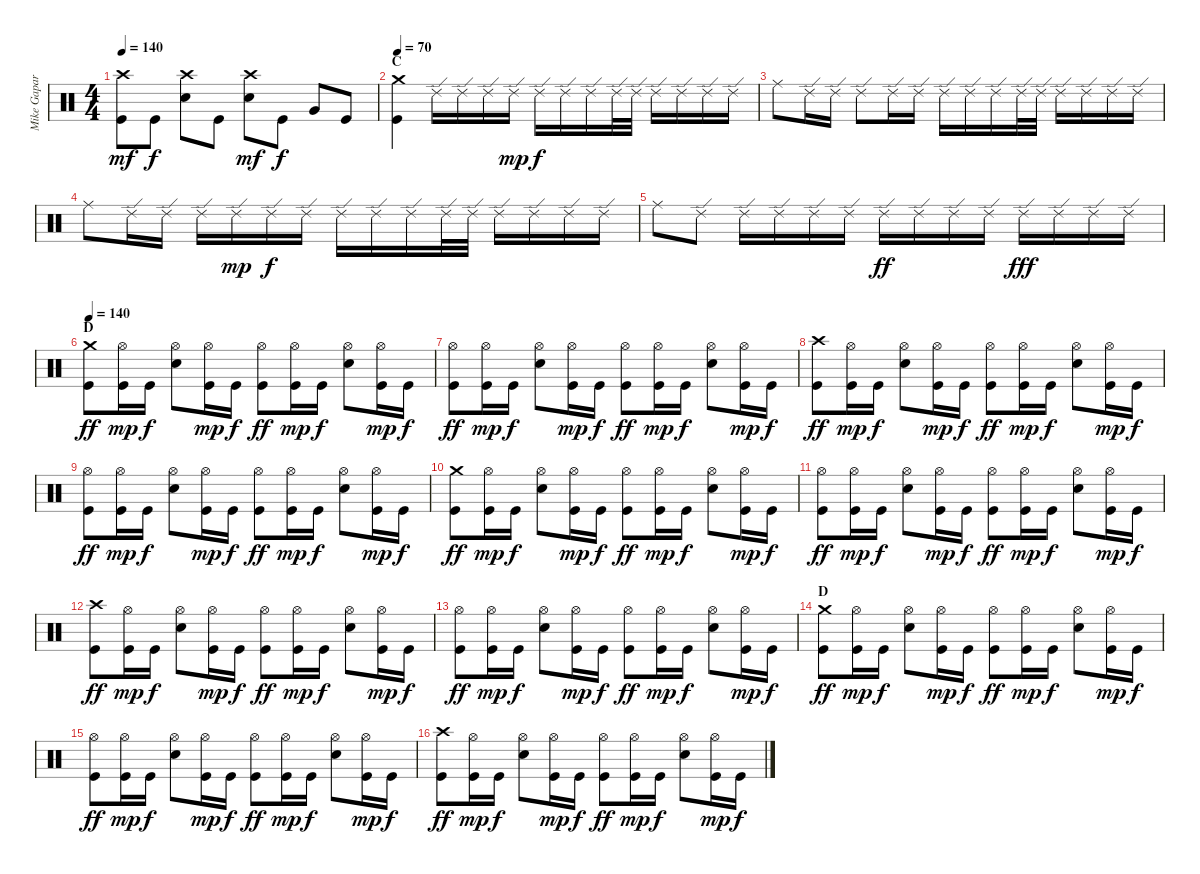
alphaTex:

\track ("Mike Gapar" "Mike Gapar") {instrument percussion}
\staff {score}
\articulation defaults
\ts (4 4)
\tempo 140
\clef neutral
\ks c
("Crash high (hit)" "Kick (hit)").8{dy mf} "Kick (hit)".8{dy f} ("Crash high (hit)" "Electric Snare (hit)").8 "Kick (hit)".8 ("Crash high (hit)" "Electric Snare (hit)").8{dy mf} "Kick (hit)".8{dy f} "Very Low Tom (hit)".8 "Kick (hit)".8 |
\section ("" "C")
\tempo 70
("Crash medium (hit)" "Kick (hit)").4 "Ride (edge) 2".16 "Ride (edge) 2".16 "Ride (edge) 2".16 "Ride (edge) 2".16{dy mp} "Ride (edge) 2".16{dy f} "Ride (edge) 2".16 "Ride (edge) 2".16 "Ride (edge) 2".32 "Ride (edge) 2".32 "Ride (edge) 2".16 "Ride (edge) 2".16 "Ride (edge) 2".16 "Ride (edge) 2".16 |
"Ride (middle)".8 "Ride (edge) 2".16 "Ride (edge) 2".16 "Ride (edge) 2".8 "Ride (edge) 2".16 "Ride (edge) 2".16 "Ride (edge) 2".16 "Ride (edge) 2".16 "Ride (edge) 2".16 "Ride (edge) 2".32 "Ride (edge) 2".32 "Ride (edge) 2".16 "Ride (edge) 2".16 "Ride (edge) 2".16 "Ride (edge) 2".16 |
"Ride (middle)".8 "Ride (edge) 2".16 "Ride (edge) 2".16 "Ride (edge) 2".16 "Ride (edge) 2".16{dy mp} "Ride (edge) 2".16{dy f} "Ride (edge) 2".16 "Ride (edge) 2".16 "Ride (edge) 2".16 "Ride (edge) 2".16 "Ride (edge) 2".32 "Ride (edge) 2".32 "Ride (edge) 2".16 "Ride (edge) 2".16 "Ride (edge) 2".16 "Ride (edge) 2".16 |
"Ride (middle)".8 "Ride (edge) 2".8 "Ride (edge) 2".16 "Ride (edge) 2".16 "Ride (edge) 2".16 "Ride (edge) 2".16 "Ride (edge) 2".16{dy ff} "Ride (edge) 2".16 "Ride (edge) 2".16 "Ride (edge) 2".16 "Ride (edge) 2".16{dy fff} "Ride (edge) 2".16 "Ride (edge) 2".16 "Ride (edge) 2".16 |
\section ("" "D")
\tempo 140
("Crash medium (hit)" "Kick (hit)").8{dy ff} ("Hi-Hat (open)" "Kick (hit)").16{dy mp} "Kick (hit)".16{dy f} ("Hi-Hat (open)" "Electric Snare (hit)").8 ("Hi-Hat (open)" "Kick (hit)").16{dy mp} "Kick (hit)".16{dy f} ("Hi-Hat (open)" "Kick (hit)").8{dy ff} ("Hi-Hat (open)" "Kick (hit)").16{dy mp} "Kick (hit)".16{dy f} ("Hi-Hat (open)" "Electric Snare (hit)").8 ("Hi-Hat (open)" "Kick (hit)").16{dy mp} "Kick (hit)".16{dy f} |
("Hi-Hat (open)" "Kick (hit)").8{dy ff} ("Hi-Hat (open)" "Kick (hit)").16{dy mp} "Kick (hit)".16{dy f} ("Hi-Hat (open)" "Electric Snare (hit)").8 ("Hi-Hat (open)" "Kick (hit)").16{dy mp} "Kick (hit)".16{dy f} ("Hi-Hat (open)" "Kick (hit)").8{dy ff} ("Hi-Hat (open)" "Kick (hit)").16{dy mp} "Kick (hit)".16{dy f} ("Hi-Hat (open)" "Electric Snare (hit)").8 ("Hi-Hat (open)" "Kick (hit)").16{dy mp} "Kick (hit)".16{dy f} |
("Crash high (hit)" "Kick (hit)").8{dy ff} ("Hi-Hat (open)" "Kick (hit)").16{dy mp} "Kick (hit)".16{dy f} ("Hi-Hat (open)" "Electric Snare (hit)").8 ("Hi-Hat (open)" "Kick (hit)").16{dy mp} "Kick (hit)".16{dy f} ("Hi-Hat (open)" "Kick (hit)").8{dy ff} ("Hi-Hat (open)" "Kick (hit)").16{dy mp} "Kick (hit)".16{dy f} ("Hi-Hat (open)" "Electric Snare (hit)").8 ("Hi-Hat (open)" "Kick (hit)").16{dy mp} "Kick (hit)".16{dy f} |
("Hi-Hat (open)" "Kick (hit)").8{dy ff} ("Hi-Hat (open)" "Kick (hit)").16{dy mp} "Kick (hit)".16{dy f} ("Hi-Hat (open)" "Electric Snare (hit)").8 ("Hi-Hat (open)" "Kick (hit)").16{dy mp} "Kick (hit)".16{dy f} ("Hi-Hat (open)" "Kick (hit)").8{dy ff} ("Hi-Hat (open)" "Kick (hit)").16{dy mp} "Kick (hit)".16{dy f} ("Hi-Hat (open)" "Electric Snare (hit)").8 ("Hi-Hat (open)" "Kick (hit)").16{dy mp} "Kick (hit)".16{dy f} |
("Crash medium (hit)" "Kick (hit)").8{dy ff} ("Hi-Hat (open)" "Kick (hit)").16{dy mp} "Kick (hit)".16{dy f} ("Hi-Hat (open)" "Electric Snare (hit)").8 ("Hi-Hat (open)" "Kick (hit)").16{dy mp} "Kick (hit)".16{dy f} ("Hi-Hat (open)" "Kick (hit)").8{dy ff} ("Hi-Hat (open)" "Kick (hit)").16{dy mp} "Kick (hit)".16{dy f} ("Hi-Hat (open)" "Electric Snare (hit)").8 ("Hi-Hat (open)" "Kick (hit)").16{dy mp} "Kick (hit)".16{dy f} |
("Hi-Hat (open)" "Kick (hit)").8{dy ff} ("Hi-Hat (open)" "Kick (hit)").16{dy mp} "Kick (hit)".16{dy f} ("Hi-Hat (open)" "Electric Snare (hit)").8 ("Hi-Hat (open)" "Kick (hit)").16{dy mp} "Kick (hit)".16{dy f} ("Hi-Hat (open)" "Kick (hit)").8{dy ff} ("Hi-Hat (open)" "Kick (hit)").16{dy mp} "Kick (hit)".16{dy f} ("Hi-Hat (open)" "Electric Snare (hit)").8 ("Hi-Hat (open)" "Kick (hit)").16{dy mp} "Kick (hit)".16{dy f} |
("Crash high (hit)" "Kick (hit)").8{dy ff} ("Hi-Hat (open)" "Kick (hit)").16{dy mp} "Kick (hit)".16{dy f} ("Hi-Hat (open)" "Electric Snare (hit)").8 ("Hi-Hat (open)" "Kick (hit)").16{dy mp} "Kick (hit)".16{dy f} ("Hi-Hat (open)" "Kick (hit)").8{dy ff} ("Hi-Hat (open)" "Kick (hit)").16{dy mp} "Kick (hit)".16{dy f} ("Hi-Hat (open)" "Electric Snare (hit)").8 ("Hi-Hat (open)" "Kick (hit)").16{dy mp} "Kick (hit)".16{dy f} |
("Hi-Hat (open)" "Kick (hit)").8{dy ff} ("Hi-Hat (open)" "Kick (hit)").16{dy mp} "Kick (hit)".16{dy f} ("Hi-Hat (open)" "Electric Snare (hit)").8 ("Hi-Hat (open)" "Kick (hit)").16{dy mp} "Kick (hit)".16{dy f} ("Hi-Hat (open)" "Kick (hit)").8{dy ff} ("Hi-Hat (open)" "Kick (hit)").16{dy mp} "Kick (hit)".16{dy f} ("Hi-Hat (open)" "Electric Snare (hit)").8 ("Hi-Hat (open)" "Kick (hit)").16{dy mp} "Kick (hit)".16{dy f} |
\section ("" "D")
("Crash medium (hit)" "Kick (hit)").8{dy ff} ("Hi-Hat (open)" "Kick (hit)").16{dy mp} "Kick (hit)".16{dy f} ("Hi-Hat (open)" "Electric Snare (hit)").8 ("Hi-Hat (open)" "Kick (hit)").16{dy mp} "Kick (hit)".16{dy f} ("Hi-Hat (open)" "Kick (hit)").8{dy ff} ("Hi-Hat (open)" "Kick (hit)").16{dy mp} "Kick (hit)".16{dy f} ("Hi-Hat (open)" "Electric Snare (hit)").8 ("Hi-Hat (open)" "Kick (hit)").16{dy mp} "Kick (hit)".16{dy f} |
("Hi-Hat (open)" "Kick (hit)").8{dy ff} ("Hi-Hat (open)" "Kick (hit)").16{dy mp} "Kick (hit)".16{dy f} ("Hi-Hat (open)" "Electric Snare (hit)").8 ("Hi-Hat (open)" "Kick (hit)").16{dy mp} "Kick (hit)".16{dy f} ("Hi-Hat (open)" "Kick (hit)").8{dy ff} ("Hi-Hat (open)" "Kick (hit)").16{dy mp} "Kick (hit)".16{dy f} ("Hi-Hat (open)" "Electric Snare (hit)").8 ("Hi-Hat (open)" "Kick (hit)").16{dy mp} "Kick (hit)".16{dy f} |
("Crash high (hit)" "Kick (hit)").8{dy ff} ("Hi-Hat (open)" "Kick (hit)").16{dy mp} "Kick (hit)".16{dy f} ("Hi-Hat (open)" "Electric Snare (hit)").8 ("Hi-Hat (open)" "Kick (hit)").16{dy mp} "Kick (hit)".16{dy f} ("Hi-Hat (open)" "Kick (hit)").8{dy ff} ("Hi-Hat (open)" "Kick (hit)").16{dy mp} "Kick (hit)".16{dy f} ("Hi-Hat (open)" "Electric Snare (hit)").8 ("Hi-Hat (open)" "Kick (hit)").16{dy mp} "Kick (hit)".16{dy f}
